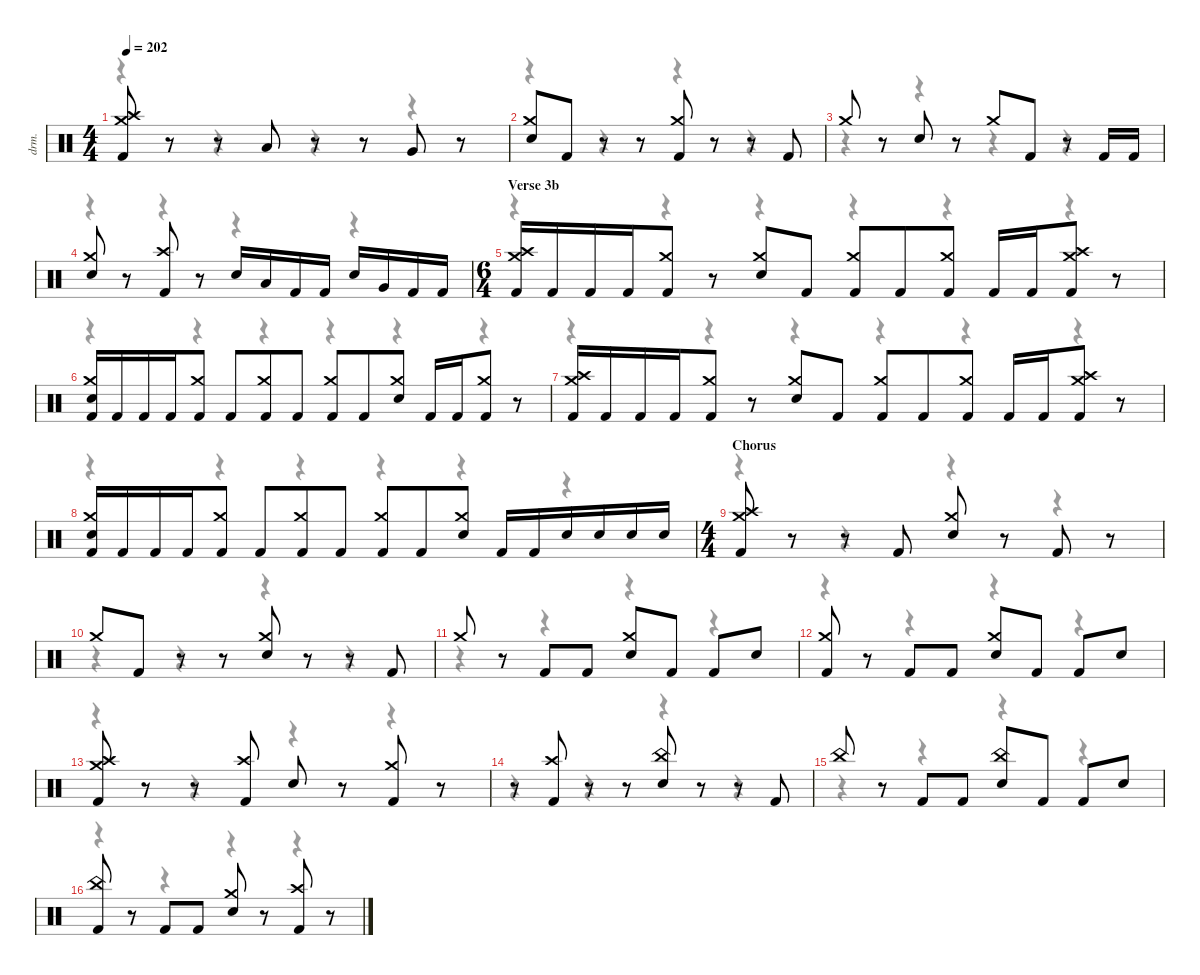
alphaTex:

\defaultSystemsLayout 4
\hideDynamics
\bracketExtendMode nobrackets
\track ("Alex Ballew" "drm.") {instrument percussion}
\staff {score}
\articulation defaults
\voice
\ts (4 4)
\tempo 202
\clef neutral
\ks c
("Crash medium (hit)" "Crash high (hit)" "Kick (hit) 2").8{dy f beam Up} r.8{beam Up} r.8{beam Up} "Low Tom (hit)".8{beam Up} r.8{beam Up} r.8{beam Up} "Very Low Tom (hit)".8{beam Up} r.8{beam Up} |
("Crash medium (hit)" "Snare (hit) 2").8{beam Up} "Kick (hit) 2".8{beam Up} r.8{beam Up} r.8{beam Up} ("Crash medium (hit)" "Kick (hit) 2").8{beam Up} r.8{beam Up} r.8{beam Up} "Kick (hit) 2".8{beam Up} |
"Crash medium (hit)".8{beam Up} r.8{beam Up} "Snare (hit) 2".8{beam Up} r.8{beam Up} "Crash medium (hit)".8{beam Up} "Kick (hit) 2".8{beam Up} r.8{beam Up} "Kick (hit) 2".16{beam Up} "Kick (hit) 2".16{beam Up} |
("Crash medium (hit)" "Snare (hit) 2").8{beam Up} r.8{beam Up} ("Crash high (hit)" "Kick (hit) 2").8{beam Up} r.8{beam Up} "Snare (hit) 2".16{beam Up} "Low Tom (hit)".16{beam Up} "Kick (hit) 2".16{beam Up} "Kick (hit) 2".16{beam Up} "Snare (hit) 2".16{beam Up} "Very Low Tom (hit)".16{beam Up} "Kick (hit) 2".16{beam Up} "Kick (hit) 2".16{beam Up} |
\ts (6 4)
\beaming (8 3 3 3 3)
\section ("" "Verse 3b")
("Crash medium (hit)" "Crash high (hit)" "Kick (hit) 2").16{beam Up} "Kick (hit) 2".16{beam Up} "Kick (hit) 2".16{beam Up} "Kick (hit) 2".16{beam Up} ("Crash medium (hit)" "Kick (hit) 2").8{beam Up} r.8{beam Up} ("Crash medium (hit)" "Snare (hit) 2").8{beam Up} "Kick (hit) 2".8{beam Up} ("Crash medium (hit)" "Kick (hit) 2").8{beam Up} "Kick (hit) 2".8{beam Up} ("Crash medium (hit)" "Kick (hit) 2").8{beam Up} "Kick (hit) 2".16{beam Up} "Kick (hit) 2".16{beam Up} ("Crash medium (hit)" "Crash high (hit)" "Kick (hit) 2").8{beam Up} r.8{beam Up} |
("Crash medium (hit)" "Snare (hit) 2" "Kick (hit) 2").16{beam Up} "Kick (hit) 2".16{beam Up} "Kick (hit) 2".16{beam Up} "Kick (hit) 2".16{beam Up} ("Crash medium (hit)" "Kick (hit) 2").8{beam Up} "Kick (hit) 2".8{beam Up} ("Crash medium (hit)" "Kick (hit) 2").8{beam Up} "Kick (hit) 2".8{beam Up} ("Crash medium (hit)" "Kick (hit) 2").8{beam Up} "Kick (hit) 2".8{beam Up} ("Crash medium (hit)" "Snare (hit) 2").8{beam Up} "Kick (hit) 2".16{beam Up} "Kick (hit) 2".16{beam Up} ("Crash medium (hit)" "Kick (hit) 2").8{beam Up} r.8{beam Up} |
("Crash medium (hit)" "Crash high (hit)" "Kick (hit) 2").16{beam Up} "Kick (hit) 2".16{beam Up} "Kick (hit) 2".16{beam Up} "Kick (hit) 2".16{beam Up} ("Crash medium (hit)" "Kick (hit) 2").8{beam Up} r.8{beam Up} ("Crash medium (hit)" "Snare (hit) 2").8{beam Up} "Kick (hit) 2".8{beam Up} ("Crash medium (hit)" "Kick (hit) 2").8{beam Up} "Kick (hit) 2".8{beam Up} ("Crash medium (hit)" "Kick (hit) 2").8{beam Up} "Kick (hit) 2".16{beam Up} "Kick (hit) 2".16{beam Up} ("Crash medium (hit)" "Crash high (hit)" "Kick (hit) 2").8{beam Up} r.8{beam Up} |
("Crash medium (hit)" "Snare (hit) 2" "Kick (hit) 2").16{beam Up} "Kick (hit) 2".16{beam Up} "Kick (hit) 2".16{beam Up} "Kick (hit) 2".16{beam Up} ("Crash medium (hit)" "Kick (hit) 2").8{beam Up} "Kick (hit) 2".8{beam Up} ("Crash medium (hit)" "Kick (hit) 2").8{beam Up} "Kick (hit) 2".8{beam Up} ("Crash medium (hit)" "Kick (hit) 2").8{beam Up} "Kick (hit) 2".8{beam Up} ("Crash medium (hit)" "Snare (hit) 2").8{beam Up} "Kick (hit) 2".16{beam Up} "Kick (hit) 2".16{beam Up} "Snare (hit) 2".16{beam Up} "Snare (hit) 2".16{beam Up} "Snare (hit) 2".16{beam Up} "Snare (hit) 2".16{beam Up} |
\ts (4 4)
\beaming (8 2 2 2 2)
\section ("" "Chorus")
("Crash medium (hit)" "Crash high (hit)" "Kick (hit) 2").8{beam Up} r.8{beam Up} r.8{beam Up} "Kick (hit) 2".8{beam Up} ("Crash medium (hit)" "Snare (hit) 2").8{beam Up} r.8{beam Up} "Kick (hit) 2".8{beam Up} r.8{beam Up} |
"Crash medium (hit)".8{beam Up} "Kick (hit) 2".8{beam Up} r.8{beam Up} r.8{beam Up} ("Crash medium (hit)" "Snare (hit) 2").8{beam Up} r.8{beam Up} r.8{beam Up} "Kick (hit) 2".8{beam Up} |
"Crash medium (hit)".8{beam Up} r.8{beam Up} "Kick (hit) 2".8{beam Up} "Kick (hit) 2".8{beam Up} ("Crash medium (hit)" "Snare (hit) 2").8{beam Up} "Kick (hit) 2".8{beam Up} "Kick (hit) 2".8{beam Up} "Snare (hit) 2".8{beam Up} |
("Crash medium (hit)" "Kick (hit) 2").8{beam Up} r.8{beam Up} "Kick (hit) 2".8{beam Up} "Kick (hit) 2".8{beam Up} ("Crash medium (hit)" "Snare (hit) 2").8{beam Up} "Kick (hit) 2".8{beam Up} "Kick (hit) 2".8{beam Up} "Snare (hit) 2".8{beam Up} |
("Crash medium (hit)" "Crash high (hit)" "Kick (hit) 2").8{beam Up} r.8{beam Up} r.8{beam Up} ("Crash high (hit)" "Kick (hit) 2").8{beam Up} "Snare (hit) 2".8{beam Up} r.8{beam Up} ("Crash medium (hit)" "Kick (hit) 2").8{beam Up} r.8{beam Up} |
r.8{beam Up} ("Crash high (hit)" "Kick (hit) 2").8{beam Up} r.8{beam Up} r.8{beam Up} ("China (hit)" "Snare (hit) 2").8{beam Up} r.8{beam Up} r.8{beam Up} "Kick (hit) 2".8{beam Up} |
"China (hit)".8{beam Up} r.8{beam Up} "Kick (hit) 2".8{beam Up} "Kick (hit) 2".8{beam Up} ("China (hit)" "Snare (hit) 2").8{beam Up} "Kick (hit) 2".8{beam Up} "Kick (hit) 2".8{beam Up} "Snare (hit) 2".8{beam Up} |
("China (hit)" "Kick (hit) 2").8{beam Up} r.8{beam Up} "Kick (hit) 2".8{beam Up} "Kick (hit) 2".8{beam Up} ("Crash medium (hit)" "Snare (hit) 2").8{beam Up} r.8{beam Up} ("Crash high (hit)" "Kick (hit) 2").8{beam Up} r.8{beam Up}
\voice
\clef neutral
\ottava regular
\simile none
\ks c
r.4{dy mf beam Down} r.4{beam Down} r.4{beam Down} r.4{beam Down} |
r.4{beam Down} r.4{beam Down} r.4{beam Down} r.4{beam Down} |
r.4{beam Down} r.4{beam Down} r.4{beam Down} r.4{beam Down} |
r.4{beam Down} r.4{beam Down} r.4{beam Down} r.4{beam Down} |
r.4{beam Down} r.4{beam Down} r.4{beam Down} r.4{beam Down} r.4{beam Down} r.4{beam Down} |
r.4{beam Down} r.4{beam Down} r.4{beam Down} r.4{beam Down} r.4{beam Down} r.4{beam Down} |
r.4{beam Down} r.4{beam Down} r.4{beam Down} r.4{beam Down} r.4{beam Down} r.4{beam Down} |
r.4{beam Down} r.4{beam Down} r.4{beam Down} r.4{beam Down} r.4{beam Down} r.4{beam Down} |
r.4{beam Down} r.4{beam Down} r.4{beam Down} r.4{beam Down} |
r.4{beam Down} r.4{beam Down} r.4{beam Down} r.4{beam Down} |
r.4{beam Down} r.4{beam Down} r.4{beam Down} r.4{beam Down} |
r.4{beam Down} r.4{beam Down} r.4{beam Down} r.4{beam Down} |
r.4{beam Down} r.4{beam Down} r.4{beam Down} r.4{beam Down} |
r.4{beam Down} r.4{beam Down} r.4{beam Down} r.4{beam Down} |
r.4{beam Down} r.4{beam Down} r.4{beam Down} r.4{beam Down} |
r.4{beam Down} r.4{beam Down} r.4{beam Down} r.4{beam Down}
